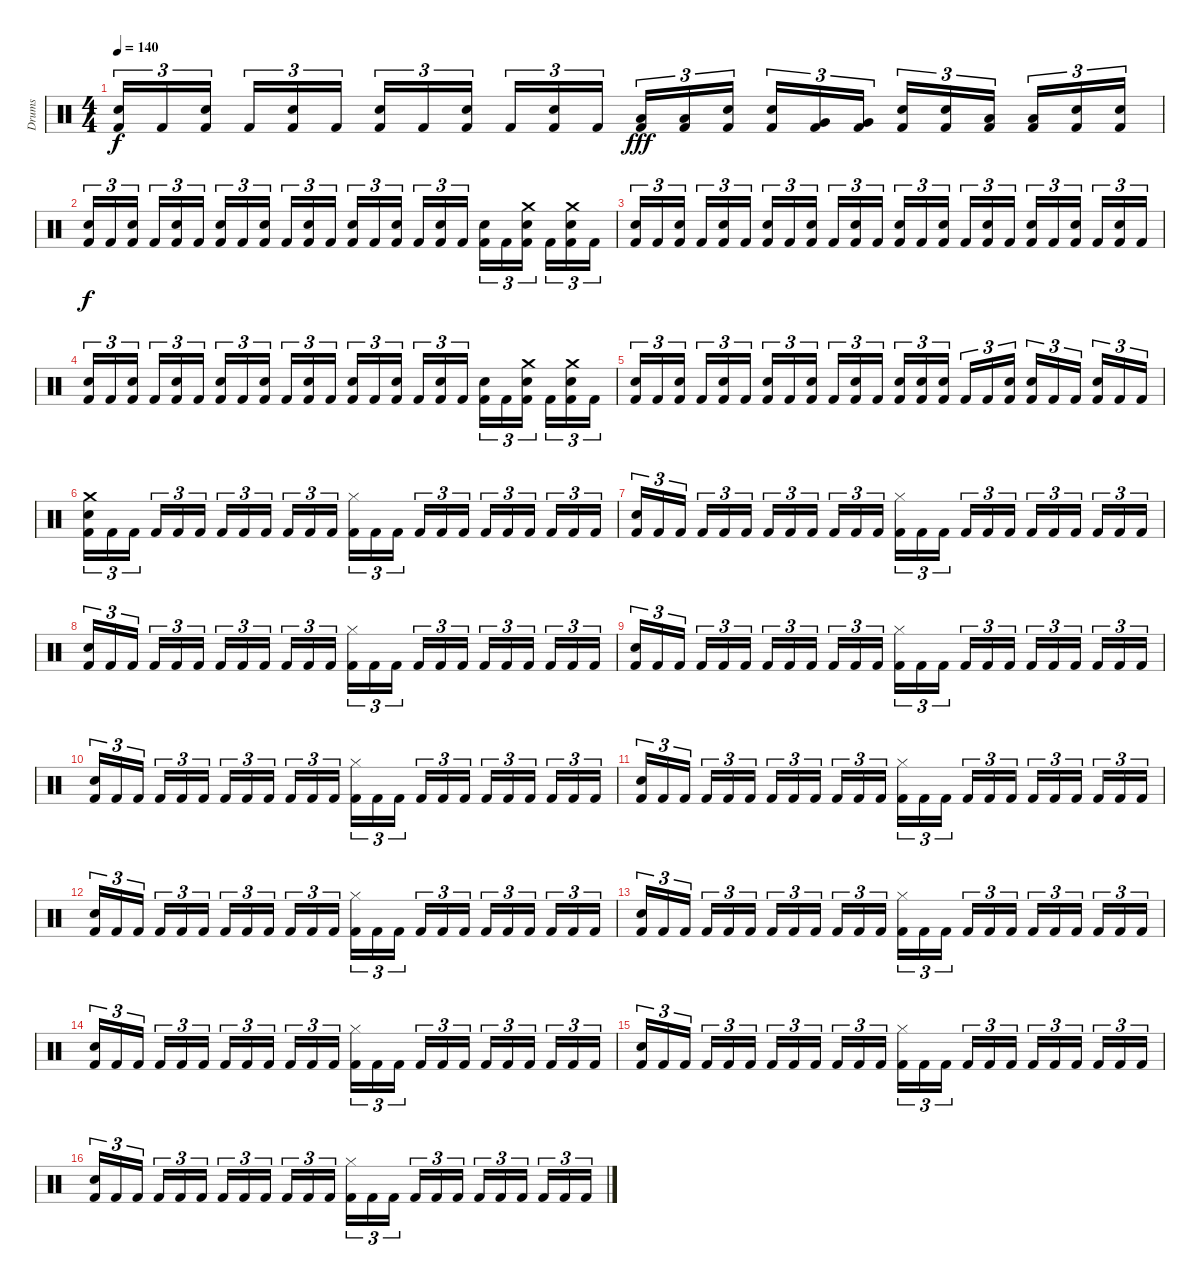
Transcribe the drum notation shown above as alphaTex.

\track ("Drums" "Drums") {instrument percussion}
\staff {score}
\articulation defaults
\ts (4 4)
\tempo 140
\clef neutral
\ks c
("Snare (hit) 2" "Kick (hit) 2").16{tu (3 2) dy f} "Kick (hit) 2".16{tu (3 2)} ("Snare (hit) 2" "Kick (hit) 2").16{tu (3 2)} "Kick (hit) 2".16{tu (3 2)} ("Snare (hit) 2" "Kick (hit) 2").16{tu (3 2)} "Kick (hit) 2".16{tu (3 2)} ("Snare (hit) 2" "Kick (hit) 2").16{tu (3 2)} "Kick (hit) 2".16{tu (3 2)} ("Snare (hit) 2" "Kick (hit) 2").16{tu (3 2)} "Kick (hit) 2".16{tu (3 2)} ("Snare (hit) 2" "Kick (hit) 2").16{tu (3 2)} "Kick (hit) 2".16{tu (3 2)} ("Low Tom (hit)" "Kick (hit) 2").16{tu (3 2) dy fff} ("Low Tom (hit)" "Kick (hit) 2").16{tu (3 2)} ("Snare (hit) 2" "Kick (hit) 2").16{tu (3 2)} ("Snare (hit) 2" "Kick (hit) 2").16{tu (3 2)} ("Very Low Tom (hit)" "Kick (hit) 2").16{tu (3 2)} ("Very Low Tom (hit)" "Kick (hit) 2").16{tu (3 2)} ("Snare (hit) 2" "Kick (hit) 2").16{tu (3 2)} ("Snare (hit) 2" "Kick (hit) 2").16{tu (3 2)} ("Low Floor Tom (hit)" "Kick (hit) 2").16{tu (3 2)} ("Low Floor Tom (hit)" "Kick (hit) 2").16{tu (3 2)} ("Snare (hit) 2" "Kick (hit) 2").16{tu (3 2)} ("Snare (hit) 2" "Kick (hit) 2").16{tu (3 2)} |
("Snare (hit) 2" "Kick (hit) 2").16{tu (3 2) dy f} "Kick (hit) 2".16{tu (3 2)} ("Snare (hit) 2" "Kick (hit) 2").16{tu (3 2)} "Kick (hit) 2".16{tu (3 2)} ("Snare (hit) 2" "Kick (hit) 2").16{tu (3 2)} "Kick (hit) 2".16{tu (3 2)} ("Snare (hit) 2" "Kick (hit) 2").16{tu (3 2)} "Kick (hit) 2".16{tu (3 2)} ("Snare (hit) 2" "Kick (hit) 2").16{tu (3 2)} "Kick (hit) 2".16{tu (3 2)} ("Snare (hit) 2" "Kick (hit) 2").16{tu (3 2)} "Kick (hit) 2".16{tu (3 2)} ("Snare (hit) 2" "Kick (hit) 2").16{tu (3 2)} "Kick (hit) 2".16{tu (3 2)} ("Snare (hit) 2" "Kick (hit) 2").16{tu (3 2)} "Kick (hit) 2".16{tu (3 2)} ("Snare (hit) 2" "Kick (hit) 2").16{tu (3 2)} "Kick (hit) 2".16{tu (3 2)} ("Snare (hit) 2" "Kick (hit) 2").16{tu (3 2)} "Kick (hit) 2".16{tu (3 2)} ("Snare (hit) 2" "Crash medium (hit)" "Kick (hit) 2").16{tu (3 2)} "Kick (hit) 2".16{tu (3 2)} ("Snare (hit) 2" "Crash medium (hit)" "Kick (hit) 2").16{tu (3 2)} "Kick (hit) 2".16{tu (3 2)} |
("Snare (hit) 2" "Kick (hit) 2").16{tu (3 2)} "Kick (hit) 2".16{tu (3 2)} ("Snare (hit) 2" "Kick (hit) 2").16{tu (3 2)} "Kick (hit) 2".16{tu (3 2)} ("Snare (hit) 2" "Kick (hit) 2").16{tu (3 2)} "Kick (hit) 2".16{tu (3 2)} ("Snare (hit) 2" "Kick (hit) 2").16{tu (3 2)} "Kick (hit) 2".16{tu (3 2)} ("Snare (hit) 2" "Kick (hit) 2").16{tu (3 2)} "Kick (hit) 2".16{tu (3 2)} ("Snare (hit) 2" "Kick (hit) 2").16{tu (3 2)} "Kick (hit) 2".16{tu (3 2)} ("Snare (hit) 2" "Kick (hit) 2").16{tu (3 2)} "Kick (hit) 2".16{tu (3 2)} ("Snare (hit) 2" "Kick (hit) 2").16{tu (3 2)} "Kick (hit) 2".16{tu (3 2)} ("Snare (hit) 2" "Kick (hit) 2").16{tu (3 2)} "Kick (hit) 2".16{tu (3 2)} ("Snare (hit) 2" "Kick (hit) 2").16{tu (3 2)} "Kick (hit) 2".16{tu (3 2)} ("Snare (hit) 2" "Kick (hit) 2").16{tu (3 2)} "Kick (hit) 2".16{tu (3 2)} ("Snare (hit) 2" "Kick (hit) 2").16{tu (3 2)} "Kick (hit) 2".16{tu (3 2)} |
("Snare (hit) 2" "Kick (hit) 2").16{tu (3 2)} "Kick (hit) 2".16{tu (3 2)} ("Snare (hit) 2" "Kick (hit) 2").16{tu (3 2)} "Kick (hit) 2".16{tu (3 2)} ("Snare (hit) 2" "Kick (hit) 2").16{tu (3 2)} "Kick (hit) 2".16{tu (3 2)} ("Snare (hit) 2" "Kick (hit) 2").16{tu (3 2)} "Kick (hit) 2".16{tu (3 2)} ("Snare (hit) 2" "Kick (hit) 2").16{tu (3 2)} "Kick (hit) 2".16{tu (3 2)} ("Snare (hit) 2" "Kick (hit) 2").16{tu (3 2)} "Kick (hit) 2".16{tu (3 2)} ("Snare (hit) 2" "Kick (hit) 2").16{tu (3 2)} "Kick (hit) 2".16{tu (3 2)} ("Snare (hit) 2" "Kick (hit) 2").16{tu (3 2)} "Kick (hit) 2".16{tu (3 2)} ("Snare (hit) 2" "Kick (hit) 2").16{tu (3 2)} "Kick (hit) 2".16{tu (3 2)} ("Snare (hit) 2" "Kick (hit) 2").16{tu (3 2)} "Kick (hit) 2".16{tu (3 2)} ("Snare (hit) 2" "Crash medium (hit)" "Kick (hit) 2").16{tu (3 2)} "Kick (hit) 2".16{tu (3 2)} ("Snare (hit) 2" "Crash medium (hit)" "Kick (hit) 2").16{tu (3 2)} "Kick (hit) 2".16{tu (3 2)} |
("Snare (hit) 2" "Kick (hit) 2").16{tu (3 2)} "Kick (hit) 2".16{tu (3 2)} ("Snare (hit) 2" "Kick (hit) 2").16{tu (3 2)} "Kick (hit) 2".16{tu (3 2)} ("Snare (hit) 2" "Kick (hit) 2").16{tu (3 2)} "Kick (hit) 2".16{tu (3 2)} ("Snare (hit) 2" "Kick (hit) 2").16{tu (3 2)} "Kick (hit) 2".16{tu (3 2)} ("Snare (hit) 2" "Kick (hit) 2").16{tu (3 2)} "Kick (hit) 2".16{tu (3 2)} ("Snare (hit) 2" "Kick (hit) 2").16{tu (3 2)} "Kick (hit) 2".16{tu (3 2)} ("Snare (hit) 2" "Kick (hit) 2").16{tu (3 2)} ("Snare (hit) 2" "Kick (hit) 2").16{tu (3 2)} ("Snare (hit) 2" "Kick (hit) 2").16{tu (3 2)} "Kick (hit) 2".16{tu (3 2)} "Kick (hit) 2".16{tu (3 2)} ("Snare (hit) 2" "Kick (hit) 2").16{tu (3 2)} ("Snare (hit) 2" "Kick (hit) 2").16{tu (3 2)} "Kick (hit) 2".16{tu (3 2)} "Kick (hit) 2".16{tu (3 2)} ("Snare (hit) 2" "Kick (hit) 2").16{tu (3 2)} "Kick (hit) 2".16{tu (3 2)} "Kick (hit) 2".16{tu (3 2)} |
("Crash medium (hit)" "Snare (hit) 2" "Kick (hit) 2").16{tu (3 2)} "Kick (hit) 2".16{tu (3 2)} "Kick (hit) 2".16{tu (3 2)} "Kick (hit) 2".16{tu (3 2)} "Kick (hit) 2".16{tu (3 2)} "Kick (hit) 2".16{tu (3 2)} "Kick (hit) 2".16{tu (3 2)} "Kick (hit) 2".16{tu (3 2)} "Kick (hit) 2".16{tu (3 2)} "Kick (hit) 2".16{tu (3 2)} "Kick (hit) 2".16{tu (3 2)} "Kick (hit) 2".16{tu (3 2)} ("Hi-Hat (closed)" "Kick (hit) 2").16{tu (3 2)} "Kick (hit) 2".16{tu (3 2)} "Kick (hit) 2".16{tu (3 2)} "Kick (hit) 2".16{tu (3 2)} "Kick (hit) 2".16{tu (3 2)} "Kick (hit) 2".16{tu (3 2)} "Kick (hit) 2".16{tu (3 2)} "Kick (hit) 2".16{tu (3 2)} "Kick (hit) 2".16{tu (3 2)} "Kick (hit) 2".16{tu (3 2)} "Kick (hit) 2".16{tu (3 2)} "Kick (hit) 2".16{tu (3 2)} |
("Snare (hit) 2" "Kick (hit) 2").16{tu (3 2)} "Kick (hit) 2".16{tu (3 2)} "Kick (hit) 2".16{tu (3 2)} "Kick (hit) 2".16{tu (3 2)} "Kick (hit) 2".16{tu (3 2)} "Kick (hit) 2".16{tu (3 2)} "Kick (hit) 2".16{tu (3 2)} "Kick (hit) 2".16{tu (3 2)} "Kick (hit) 2".16{tu (3 2)} "Kick (hit) 2".16{tu (3 2)} "Kick (hit) 2".16{tu (3 2)} "Kick (hit) 2".16{tu (3 2)} ("Hi-Hat (closed)" "Kick (hit) 2").16{tu (3 2)} "Kick (hit) 2".16{tu (3 2)} "Kick (hit) 2".16{tu (3 2)} "Kick (hit) 2".16{tu (3 2)} "Kick (hit) 2".16{tu (3 2)} "Kick (hit) 2".16{tu (3 2)} "Kick (hit) 2".16{tu (3 2)} "Kick (hit) 2".16{tu (3 2)} "Kick (hit) 2".16{tu (3 2)} "Kick (hit) 2".16{tu (3 2)} "Kick (hit) 2".16{tu (3 2)} "Kick (hit) 2".16{tu (3 2)} |
("Snare (hit) 2" "Kick (hit) 2").16{tu (3 2)} "Kick (hit) 2".16{tu (3 2)} "Kick (hit) 2".16{tu (3 2)} "Kick (hit) 2".16{tu (3 2)} "Kick (hit) 2".16{tu (3 2)} "Kick (hit) 2".16{tu (3 2)} "Kick (hit) 2".16{tu (3 2)} "Kick (hit) 2".16{tu (3 2)} "Kick (hit) 2".16{tu (3 2)} "Kick (hit) 2".16{tu (3 2)} "Kick (hit) 2".16{tu (3 2)} "Kick (hit) 2".16{tu (3 2)} ("Hi-Hat (closed)" "Kick (hit) 2").16{tu (3 2)} "Kick (hit) 2".16{tu (3 2)} "Kick (hit) 2".16{tu (3 2)} "Kick (hit) 2".16{tu (3 2)} "Kick (hit) 2".16{tu (3 2)} "Kick (hit) 2".16{tu (3 2)} "Kick (hit) 2".16{tu (3 2)} "Kick (hit) 2".16{tu (3 2)} "Kick (hit) 2".16{tu (3 2)} "Kick (hit) 2".16{tu (3 2)} "Kick (hit) 2".16{tu (3 2)} "Kick (hit) 2".16{tu (3 2)} |
("Snare (hit) 2" "Kick (hit) 2").16{tu (3 2)} "Kick (hit) 2".16{tu (3 2)} "Kick (hit) 2".16{tu (3 2)} "Kick (hit) 2".16{tu (3 2)} "Kick (hit) 2".16{tu (3 2)} "Kick (hit) 2".16{tu (3 2)} "Kick (hit) 2".16{tu (3 2)} "Kick (hit) 2".16{tu (3 2)} "Kick (hit) 2".16{tu (3 2)} "Kick (hit) 2".16{tu (3 2)} "Kick (hit) 2".16{tu (3 2)} "Kick (hit) 2".16{tu (3 2)} ("Hi-Hat (closed)" "Kick (hit) 2").16{tu (3 2)} "Kick (hit) 2".16{tu (3 2)} "Kick (hit) 2".16{tu (3 2)} "Kick (hit) 2".16{tu (3 2)} "Kick (hit) 2".16{tu (3 2)} "Kick (hit) 2".16{tu (3 2)} "Kick (hit) 2".16{tu (3 2)} "Kick (hit) 2".16{tu (3 2)} "Kick (hit) 2".16{tu (3 2)} "Kick (hit) 2".16{tu (3 2)} "Kick (hit) 2".16{tu (3 2)} "Kick (hit) 2".16{tu (3 2)} |
("Snare (hit) 2" "Kick (hit) 2").16{tu (3 2)} "Kick (hit) 2".16{tu (3 2)} "Kick (hit) 2".16{tu (3 2)} "Kick (hit) 2".16{tu (3 2)} "Kick (hit) 2".16{tu (3 2)} "Kick (hit) 2".16{tu (3 2)} "Kick (hit) 2".16{tu (3 2)} "Kick (hit) 2".16{tu (3 2)} "Kick (hit) 2".16{tu (3 2)} "Kick (hit) 2".16{tu (3 2)} "Kick (hit) 2".16{tu (3 2)} "Kick (hit) 2".16{tu (3 2)} ("Hi-Hat (closed)" "Kick (hit) 2").16{tu (3 2)} "Kick (hit) 2".16{tu (3 2)} "Kick (hit) 2".16{tu (3 2)} "Kick (hit) 2".16{tu (3 2)} "Kick (hit) 2".16{tu (3 2)} "Kick (hit) 2".16{tu (3 2)} "Kick (hit) 2".16{tu (3 2)} "Kick (hit) 2".16{tu (3 2)} "Kick (hit) 2".16{tu (3 2)} "Kick (hit) 2".16{tu (3 2)} "Kick (hit) 2".16{tu (3 2)} "Kick (hit) 2".16{tu (3 2)} |
("Snare (hit) 2" "Kick (hit) 2").16{tu (3 2)} "Kick (hit) 2".16{tu (3 2)} "Kick (hit) 2".16{tu (3 2)} "Kick (hit) 2".16{tu (3 2)} "Kick (hit) 2".16{tu (3 2)} "Kick (hit) 2".16{tu (3 2)} "Kick (hit) 2".16{tu (3 2)} "Kick (hit) 2".16{tu (3 2)} "Kick (hit) 2".16{tu (3 2)} "Kick (hit) 2".16{tu (3 2)} "Kick (hit) 2".16{tu (3 2)} "Kick (hit) 2".16{tu (3 2)} ("Hi-Hat (closed)" "Kick (hit) 2").16{tu (3 2)} "Kick (hit) 2".16{tu (3 2)} "Kick (hit) 2".16{tu (3 2)} "Kick (hit) 2".16{tu (3 2)} "Kick (hit) 2".16{tu (3 2)} "Kick (hit) 2".16{tu (3 2)} "Kick (hit) 2".16{tu (3 2)} "Kick (hit) 2".16{tu (3 2)} "Kick (hit) 2".16{tu (3 2)} "Kick (hit) 2".16{tu (3 2)} "Kick (hit) 2".16{tu (3 2)} "Kick (hit) 2".16{tu (3 2)} |
("Snare (hit) 2" "Kick (hit) 2").16{tu (3 2)} "Kick (hit) 2".16{tu (3 2)} "Kick (hit) 2".16{tu (3 2)} "Kick (hit) 2".16{tu (3 2)} "Kick (hit) 2".16{tu (3 2)} "Kick (hit) 2".16{tu (3 2)} "Kick (hit) 2".16{tu (3 2)} "Kick (hit) 2".16{tu (3 2)} "Kick (hit) 2".16{tu (3 2)} "Kick (hit) 2".16{tu (3 2)} "Kick (hit) 2".16{tu (3 2)} "Kick (hit) 2".16{tu (3 2)} ("Hi-Hat (closed)" "Kick (hit) 2").16{tu (3 2)} "Kick (hit) 2".16{tu (3 2)} "Kick (hit) 2".16{tu (3 2)} "Kick (hit) 2".16{tu (3 2)} "Kick (hit) 2".16{tu (3 2)} "Kick (hit) 2".16{tu (3 2)} "Kick (hit) 2".16{tu (3 2)} "Kick (hit) 2".16{tu (3 2)} "Kick (hit) 2".16{tu (3 2)} "Kick (hit) 2".16{tu (3 2)} "Kick (hit) 2".16{tu (3 2)} "Kick (hit) 2".16{tu (3 2)} |
("Snare (hit) 2" "Kick (hit) 2").16{tu (3 2)} "Kick (hit) 2".16{tu (3 2)} "Kick (hit) 2".16{tu (3 2)} "Kick (hit) 2".16{tu (3 2)} "Kick (hit) 2".16{tu (3 2)} "Kick (hit) 2".16{tu (3 2)} "Kick (hit) 2".16{tu (3 2)} "Kick (hit) 2".16{tu (3 2)} "Kick (hit) 2".16{tu (3 2)} "Kick (hit) 2".16{tu (3 2)} "Kick (hit) 2".16{tu (3 2)} "Kick (hit) 2".16{tu (3 2)} ("Hi-Hat (closed)" "Kick (hit) 2").16{tu (3 2)} "Kick (hit) 2".16{tu (3 2)} "Kick (hit) 2".16{tu (3 2)} "Kick (hit) 2".16{tu (3 2)} "Kick (hit) 2".16{tu (3 2)} "Kick (hit) 2".16{tu (3 2)} "Kick (hit) 2".16{tu (3 2)} "Kick (hit) 2".16{tu (3 2)} "Kick (hit) 2".16{tu (3 2)} "Kick (hit) 2".16{tu (3 2)} "Kick (hit) 2".16{tu (3 2)} "Kick (hit) 2".16{tu (3 2)} |
("Snare (hit) 2" "Kick (hit) 2").16{tu (3 2)} "Kick (hit) 2".16{tu (3 2)} "Kick (hit) 2".16{tu (3 2)} "Kick (hit) 2".16{tu (3 2)} "Kick (hit) 2".16{tu (3 2)} "Kick (hit) 2".16{tu (3 2)} "Kick (hit) 2".16{tu (3 2)} "Kick (hit) 2".16{tu (3 2)} "Kick (hit) 2".16{tu (3 2)} "Kick (hit) 2".16{tu (3 2)} "Kick (hit) 2".16{tu (3 2)} "Kick (hit) 2".16{tu (3 2)} ("Hi-Hat (closed)" "Kick (hit) 2").16{tu (3 2)} "Kick (hit) 2".16{tu (3 2)} "Kick (hit) 2".16{tu (3 2)} "Kick (hit) 2".16{tu (3 2)} "Kick (hit) 2".16{tu (3 2)} "Kick (hit) 2".16{tu (3 2)} "Kick (hit) 2".16{tu (3 2)} "Kick (hit) 2".16{tu (3 2)} "Kick (hit) 2".16{tu (3 2)} "Kick (hit) 2".16{tu (3 2)} "Kick (hit) 2".16{tu (3 2)} "Kick (hit) 2".16{tu (3 2)} |
("Snare (hit) 2" "Kick (hit) 2").16{tu (3 2)} "Kick (hit) 2".16{tu (3 2)} "Kick (hit) 2".16{tu (3 2)} "Kick (hit) 2".16{tu (3 2)} "Kick (hit) 2".16{tu (3 2)} "Kick (hit) 2".16{tu (3 2)} "Kick (hit) 2".16{tu (3 2)} "Kick (hit) 2".16{tu (3 2)} "Kick (hit) 2".16{tu (3 2)} "Kick (hit) 2".16{tu (3 2)} "Kick (hit) 2".16{tu (3 2)} "Kick (hit) 2".16{tu (3 2)} ("Hi-Hat (closed)" "Kick (hit) 2").16{tu (3 2)} "Kick (hit) 2".16{tu (3 2)} "Kick (hit) 2".16{tu (3 2)} "Kick (hit) 2".16{tu (3 2)} "Kick (hit) 2".16{tu (3 2)} "Kick (hit) 2".16{tu (3 2)} "Kick (hit) 2".16{tu (3 2)} "Kick (hit) 2".16{tu (3 2)} "Kick (hit) 2".16{tu (3 2)} "Kick (hit) 2".16{tu (3 2)} "Kick (hit) 2".16{tu (3 2)} "Kick (hit) 2".16{tu (3 2)} |
("Snare (hit) 2" "Kick (hit) 2").16{tu (3 2)} "Kick (hit) 2".16{tu (3 2)} "Kick (hit) 2".16{tu (3 2)} "Kick (hit) 2".16{tu (3 2)} "Kick (hit) 2".16{tu (3 2)} "Kick (hit) 2".16{tu (3 2)} "Kick (hit) 2".16{tu (3 2)} "Kick (hit) 2".16{tu (3 2)} "Kick (hit) 2".16{tu (3 2)} "Kick (hit) 2".16{tu (3 2)} "Kick (hit) 2".16{tu (3 2)} "Kick (hit) 2".16{tu (3 2)} ("Hi-Hat (closed)" "Kick (hit) 2").16{tu (3 2)} "Kick (hit) 2".16{tu (3 2)} "Kick (hit) 2".16{tu (3 2)} "Kick (hit) 2".16{tu (3 2)} "Kick (hit) 2".16{tu (3 2)} "Kick (hit) 2".16{tu (3 2)} "Kick (hit) 2".16{tu (3 2)} "Kick (hit) 2".16{tu (3 2)} "Kick (hit) 2".16{tu (3 2)} "Kick (hit) 2".16{tu (3 2)} "Kick (hit) 2".16{tu (3 2)} "Kick (hit) 2".16{tu (3 2)}
